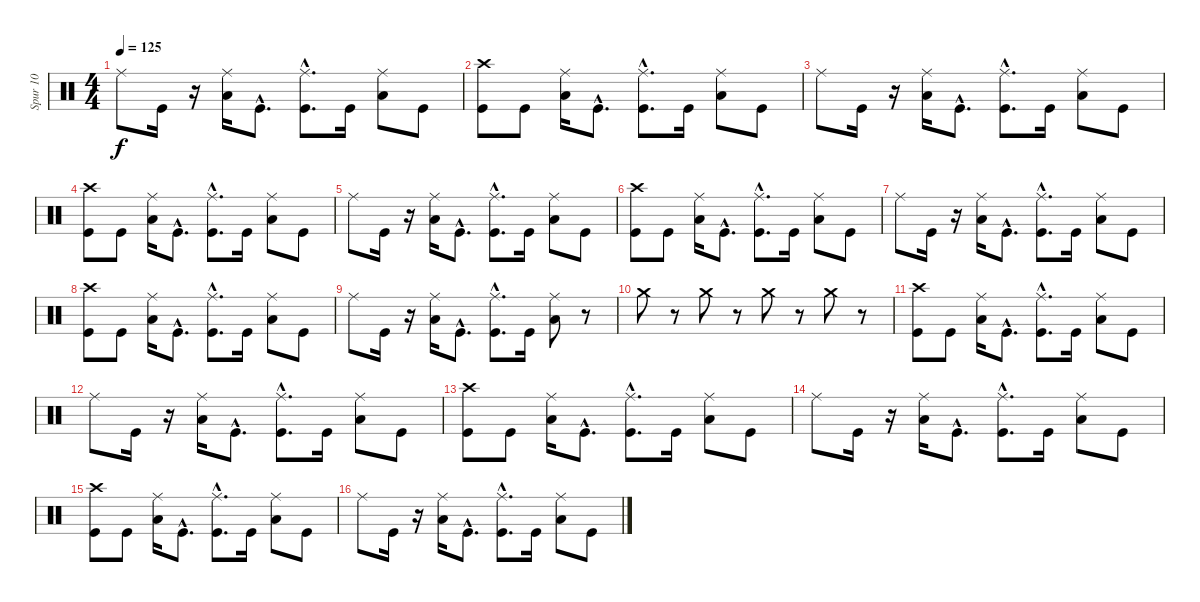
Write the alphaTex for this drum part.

\track ("Spur 10" "Spur 10") {instrument percussion}
\staff {score}
\articulation defaults
\ts (4 4)
\tempo 125
\clef neutral
\ks c "Ride (middle)".8{dy f} "Kick (hit)".16
r.16 ("Ride (middle)" "Low Tom (hit)").16 "Kick (hit)"{hac}.8{d} ("Kick (hit)"{hac} "Ride (middle)").8{d} "Kick (hit)".16 ("Low Tom (hit)" "Ride (middle)").8 "Kick (hit)".8 |
("Kick (hit)" "Crash high (hit)").8 "Kick (hit)".8 ("Ride (middle)" "Low Tom (hit)").16 "Kick (hit)"{hac}.8{d} ("Kick (hit)"{hac} "Ride (middle)").8{d} "Kick (hit)".16 ("Low Tom (hit)" "Ride (middle)").8 "Kick (hit)".8 |
"Ride (middle)".8 "Kick (hit)".16 r.16 ("Ride (middle)" "Low Tom (hit)").16 "Kick (hit)"{hac}.8{d} ("Ride (middle)" "Kick (hit)"{hac}).8{d} "Kick (hit)".16 ("Ride (middle)" "Low Tom (hit)").8 "Kick (hit)".8 |
("Crash high (hit)" "Kick (hit)").8 "Kick (hit)".8 ("Ride (middle)" "Low Tom (hit)").16 "Kick (hit)"{hac}.8{d} ("Kick (hit)"{hac} "Ride (middle)").8{d} "Kick (hit)".16 ("Ride (middle)" "Low Tom (hit)").8 "Kick (hit)".8 |
"Ride (middle)".8 "Kick (hit)".16 r.16 ("Low Tom (hit)" "Ride (middle)").16 "Kick (hit)"{hac}.8{d} ("Ride (middle)" "Kick (hit)"{hac}).8{d} "Kick (hit)".16 ("Ride (middle)" "Low Tom (hit)").8 "Kick (hit)".8 |
("Crash high (hit)" "Kick (hit)").8 "Kick (hit)".8 ("Ride (middle)" "Low Tom (hit)").16 "Kick (hit)"{hac}.8{d} ("Ride (middle)" "Kick (hit)"{hac}).8{d} "Kick (hit)".16 ("Low Tom (hit)" "Ride (middle)").8 "Kick (hit)".8 |
"Ride (middle)".8 "Kick (hit)".16 r.16 ("Low Tom (hit)" "Ride (middle)").16 "Kick (hit)"{hac}.8{d} ("Kick (hit)"{hac} "Ride (middle)").8{d} "Kick (hit)".16 ("Ride (middle)" "Low Tom (hit)").8 "Kick (hit)".8 |
("Crash high (hit)" "Kick (hit)").8 "Kick (hit)".8 ("Ride (middle)" "Low Tom (hit)").16 "Kick (hit)"{hac}.8{d} ("Ride (middle)" "Kick (hit)"{hac}).8{d} "Kick (hit)".16 ("Low Tom (hit)" "Ride (middle)").8 "Kick (hit)".8 |
"Ride (middle)".8 "Kick (hit)".16 r.16 ("Ride (middle)" "Low Tom (hit)").16 "Kick (hit)"{hac}.8{d} ("Kick (hit)"{hac} "Ride (middle)").8{d} "Kick (hit)".16 ("Low Tom (hit)" "Ride (middle)").8 r.8 |
"Crash medium (hit)".8 r.8 "Crash medium (hit)".8 r.8 "Crash medium (hit)".8 r.8 "Crash medium (hit)".8 r.8 |
("Kick (hit)" "Crash high (hit)").8 "Kick (hit)".8 ("Low Tom (hit)" "Ride (middle)").16 "Kick (hit)"{hac}.8{d} ("Kick (hit)"{hac} "Ride (middle)").8{d} "Kick (hit)".16 ("Low Tom (hit)" "Ride (middle)").8 "Kick (hit)".8 |
"Ride (middle)".8 "Kick (hit)".16 r.16 ("Ride (middle)" "Low Tom (hit)").16 "Kick (hit)"{hac}.8{d} ("Kick (hit)"{hac} "Ride (middle)").8{d} "Kick (hit)".16 ("Ride (middle)" "Low Tom (hit)").8 "Kick (hit)".8 |
("Kick (hit)" "Crash high (hit)").8 "Kick (hit)".8 ("Low Tom (hit)" "Ride (middle)").16 "Kick (hit)"{hac}.8{d} ("Ride (middle)" "Kick (hit)"{hac}).8{d} "Kick (hit)".16 ("Ride (middle)" "Low Tom (hit)").8 "Kick (hit)".8 |
"Ride (middle)".8 "Kick (hit)".16 r.16 ("Ride (middle)" "Low Tom (hit)").16 "Kick (hit)"{hac}.8{d} ("Kick (hit)"{hac} "Ride (middle)").8{d} "Kick (hit)".16 ("Ride (middle)" "Low Tom (hit)").8 "Kick (hit)".8 |
("Crash high (hit)" "Kick (hit)").8 "Kick (hit)".8 ("Low Tom (hit)" "Ride (middle)").16 "Kick (hit)"{hac}.8{d} ("Ride (middle)" "Kick (hit)"{hac}).8{d} "Kick (hit)".16 ("Ride (middle)" "Low Tom (hit)").8 "Kick (hit)".8 |
"Ride (middle)".8 "Kick (hit)".16 r.16 ("Low Tom (hit)" "Ride (middle)").16 "Kick (hit)"{hac}.8{d} ("Kick (hit)"{hac} "Ride (middle)").8{d} "Kick (hit)".16 ("Low Tom (hit)" "Ride (middle)").8 "Kick (hit)".8
